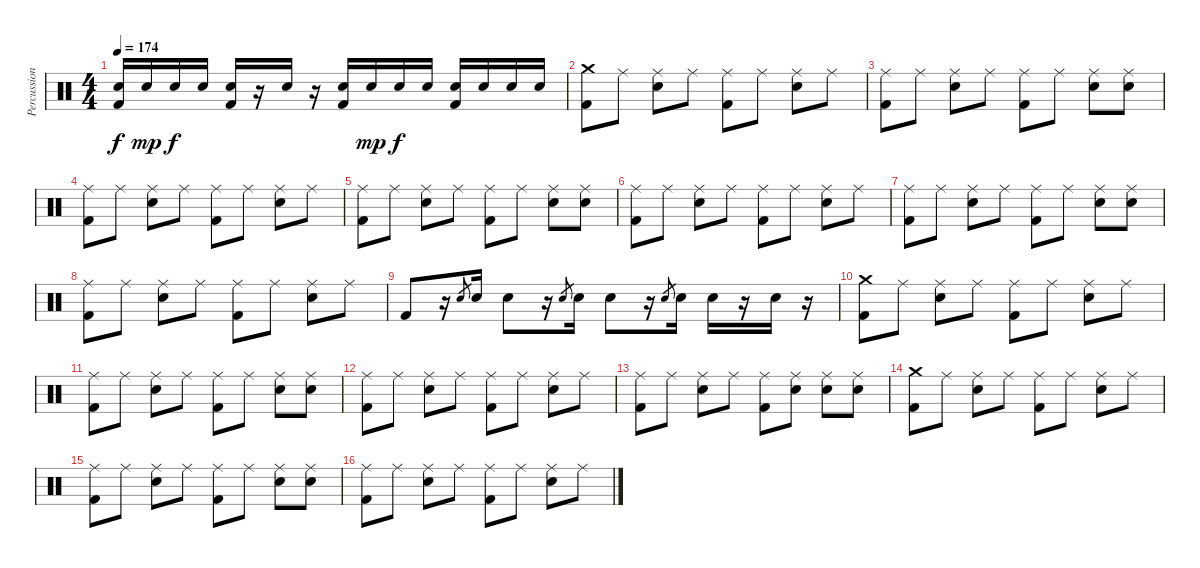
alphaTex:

\track ("Percussion" "Percussion") {instrument percussion}
\staff {score}
\articulation defaults
\ts (4 4)
\tempo 174
\clef neutral
\ks c
("Electric Snare (hit)" "Kick (hit) 2").16{dy f} "Electric Snare (hit)".16{dy mp} "Electric Snare (hit)".16{dy f} "Electric Snare (hit)".16 ("Electric Snare (hit)" "Kick (hit) 2").16 r.16 "Electric Snare (hit)".16 r.16 ("Electric Snare (hit)" "Kick (hit) 2").16 "Electric Snare (hit)".16{dy mp} "Electric Snare (hit)".16{dy f} "Electric Snare (hit)".16 ("Electric Snare (hit)" "Kick (hit) 2").16 "Electric Snare (hit)".16 "Electric Snare (hit)".16 "Electric Snare (hit)".16 |
("Crash medium (hit)" "Kick (hit) 2").8 "Ride (middle)".8 ("Ride (middle)" "Electric Snare (hit)").8 "Ride (middle)".8 ("Ride (middle)" "Kick (hit) 2").8 "Ride (middle)".8 ("Ride (middle)" "Electric Snare (hit)").8 "Ride (middle)".8 |
("Ride (middle)" "Kick (hit) 2").8 "Ride (middle)".8 ("Ride (middle)" "Electric Snare (hit)").8 "Ride (middle)".8 ("Ride (middle)" "Kick (hit) 2").8 "Ride (middle)".8 ("Ride (middle)" "Electric Snare (hit)").8 ("Ride (middle)" "Electric Snare (hit)").8 |
("Ride (middle)" "Kick (hit) 2").8 "Ride (middle)".8 ("Ride (middle)" "Electric Snare (hit)").8 "Ride (middle)".8 ("Ride (middle)" "Kick (hit) 2").8 "Ride (middle)".8 ("Ride (middle)" "Electric Snare (hit)").8 "Ride (middle)".8 |
("Ride (middle)" "Kick (hit) 2").8 "Ride (middle)".8 ("Ride (middle)" "Electric Snare (hit)").8 "Ride (middle)".8 ("Ride (middle)" "Kick (hit) 2").8 "Ride (middle)".8 ("Ride (middle)" "Electric Snare (hit)").8 ("Ride (middle)" "Electric Snare (hit)").8 |
("Ride (middle)" "Kick (hit) 2").8 "Ride (middle)".8 ("Ride (middle)" "Electric Snare (hit)").8 "Ride (middle)".8 ("Ride (middle)" "Kick (hit) 2").8 "Ride (middle)".8 ("Ride (middle)" "Electric Snare (hit)").8 "Ride (middle)".8 |
("Ride (middle)" "Kick (hit) 2").8 "Ride (middle)".8 ("Ride (middle)" "Electric Snare (hit)").8 "Ride (middle)".8 ("Ride (middle)" "Kick (hit) 2").8 "Ride (middle)".8 ("Ride (middle)" "Electric Snare (hit)").8 ("Ride (middle)" "Electric Snare (hit)").8 |
("Ride (middle)" "Kick (hit) 2").8 "Ride (middle)".8 ("Ride (middle)" "Electric Snare (hit)").8 "Ride (middle)".8 ("Ride (middle)" "Kick (hit) 2").8 "Ride (middle)".8 ("Ride (middle)" "Electric Snare (hit)").8 "Ride (middle)".8 |
"Kick (hit) 2".8 r.16 "Electric Snare (hit)".8{gr} "Electric Snare (hit)".16 "Electric Snare (hit)".8 r.16 "Electric Snare (hit)".8{gr} "Electric Snare (hit)".16 "Electric Snare (hit)".8 r.16 "Electric Snare (hit)".8{gr} "Electric Snare (hit)".16 "Electric Snare (hit)".16 r.16 "Electric Snare (hit)".16 r.16 |
("Crash medium (hit)" "Kick (hit) 2").8 "Ride (middle)".8 ("Ride (middle)" "Electric Snare (hit)").8 "Ride (middle)".8 ("Ride (middle)" "Kick (hit) 2").8 "Ride (middle)".8 ("Ride (middle)" "Electric Snare (hit)").8 "Ride (middle)".8 |
("Ride (middle)" "Kick (hit) 2").8 "Ride (middle)".8 ("Ride (middle)" "Electric Snare (hit)").8 "Ride (middle)".8 ("Ride (middle)" "Kick (hit) 2").8 "Ride (middle)".8 ("Ride (middle)" "Electric Snare (hit)").8 ("Ride (middle)" "Electric Snare (hit)").8 |
("Ride (middle)" "Kick (hit) 2").8 "Ride (middle)".8 ("Ride (middle)" "Electric Snare (hit)").8 "Ride (middle)".8 ("Ride (middle)" "Kick (hit) 2").8 "Ride (middle)".8 ("Ride (middle)" "Electric Snare (hit)").8 "Ride (middle)".8 |
("Ride (middle)" "Kick (hit) 2").8 "Ride (middle)".8 ("Ride (middle)" "Electric Snare (hit)").8 "Ride (middle)".8 ("Ride (middle)" "Kick (hit) 2").8 ("Ride (middle)" "Electric Snare (hit)").8 ("Ride (middle)" "Electric Snare (hit)").8 ("Ride (middle)" "Electric Snare (hit)").8 |
("Crash medium (hit)" "Kick (hit) 2").8 "Ride (middle)".8 ("Ride (middle)" "Electric Snare (hit)").8 "Ride (middle)".8 ("Ride (middle)" "Kick (hit) 2").8 "Ride (middle)".8 ("Ride (middle)" "Electric Snare (hit)").8 "Ride (middle)".8 |
("Ride (middle)" "Kick (hit) 2").8 "Ride (middle)".8 ("Ride (middle)" "Electric Snare (hit)").8 "Ride (middle)".8 ("Ride (middle)" "Kick (hit) 2").8 "Ride (middle)".8 ("Ride (middle)" "Electric Snare (hit)").8 ("Ride (middle)" "Electric Snare (hit)").8 |
("Ride (middle)" "Kick (hit) 2").8 "Ride (middle)".8 ("Ride (middle)" "Electric Snare (hit)").8 "Ride (middle)".8 ("Ride (middle)" "Kick (hit) 2").8 "Ride (middle)".8 ("Ride (middle)" "Electric Snare (hit)").8 "Ride (middle)".8
